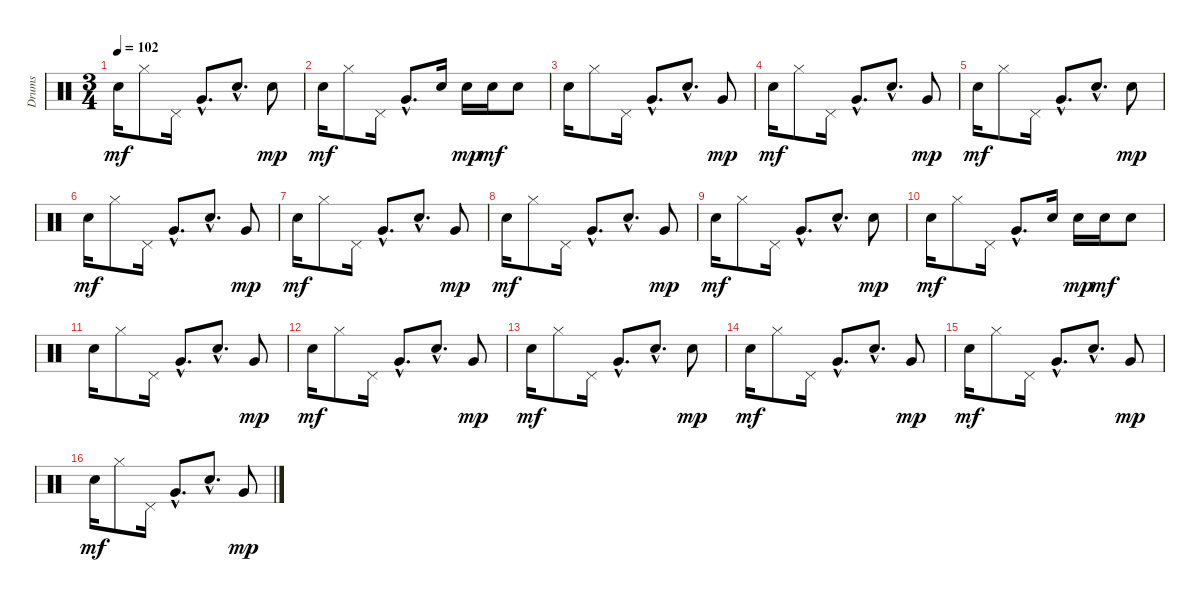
\track ("Drums" "Drums") {instrument percussion}
\staff {score}
\articulation defaults
\ts (3 4)
\tempo 102
\clef neutral
\ks c "Electric Snare (hit)".16{dy mf} "Hi-Hat (closed)".8 "Pedal Hi-Hat (hit)".16 "Very Low Tom (hit)"{hac}.8{d} "Electric Snare (hit)"{hac}.8{d} "Electric Snare (hit)".8{dy mp}
|
"Electric Snare (hit)".16{dy mf} "Hi-Hat (closed)".8 "Pedal Hi-Hat (hit)".16 "Very Low Tom (hit)"{hac}.8{d} "Electric Snare (hit)".16 "Electric Snare (hit)".16{dy mp} "Electric Snare (hit)".16{dy mf} "Electric Snare (hit)".8 |
"Electric Snare (hit)".16 "Hi-Hat (closed)".8 "Pedal Hi-Hat (hit)".16 "Very Low Tom (hit)"{hac}.8{d} "Electric Snare (hit)"{hac}.8{d} "Very Low Tom (hit)".8{dy mp} |
"Electric Snare (hit)".16{dy mf} "Hi-Hat (closed)".8 "Pedal Hi-Hat (hit)".16 "Very Low Tom (hit)"{hac}.8{d} "Electric Snare (hit)"{hac}.8{d} "Very Low Tom (hit)".8{dy mp} |
"Electric Snare (hit)".16{dy mf} "Hi-Hat (closed)".8 "Pedal Hi-Hat (hit)".16 "Very Low Tom (hit)"{hac}.8{d} "Electric Snare (hit)"{hac}.8{d} "Electric Snare (hit)".8{dy mp} |
"Electric Snare (hit)".16{dy mf} "Hi-Hat (closed)".8 "Pedal Hi-Hat (hit)".16 "Very Low Tom (hit)"{hac}.8{d} "Electric Snare (hit)"{hac}.8{d} "Very Low Tom (hit)".8{dy mp} |
"Electric Snare (hit)".16{dy mf} "Hi-Hat (closed)".8 "Pedal Hi-Hat (hit)".16 "Very Low Tom (hit)"{hac}.8{d} "Electric Snare (hit)"{hac}.8{d} "Very Low Tom (hit)".8{dy mp} |
"Electric Snare (hit)".16{dy mf} "Hi-Hat (closed)".8 "Pedal Hi-Hat (hit)".16 "Very Low Tom (hit)"{hac}.8{d} "Electric Snare (hit)"{hac}.8{d} "Very Low Tom (hit)".8{dy mp} |
"Electric Snare (hit)".16{dy mf} "Hi-Hat (closed)".8 "Pedal Hi-Hat (hit)".16 "Very Low Tom (hit)"{hac}.8{d} "Electric Snare (hit)"{hac}.8{d} "Electric Snare (hit)".8{dy mp} |
"Electric Snare (hit)".16{dy mf} "Hi-Hat (closed)".8 "Pedal Hi-Hat (hit)".16 "Very Low Tom (hit)"{hac}.8{d} "Electric Snare (hit)".16 "Electric Snare (hit)".16{dy mp} "Electric Snare (hit)".16{dy mf} "Electric Snare (hit)".8 |
"Electric Snare (hit)".16 "Hi-Hat (closed)".8 "Pedal Hi-Hat (hit)".16 "Very Low Tom (hit)"{hac}.8{d} "Electric Snare (hit)"{hac}.8{d} "Very Low Tom (hit)".8{dy mp} |
"Electric Snare (hit)".16{dy mf} "Hi-Hat (closed)".8 "Pedal Hi-Hat (hit)".16 "Very Low Tom (hit)"{hac}.8{d} "Electric Snare (hit)"{hac}.8{d} "Very Low Tom (hit)".8{dy mp} |
"Electric Snare (hit)".16{dy mf} "Hi-Hat (closed)".8 "Pedal Hi-Hat (hit)".16 "Very Low Tom (hit)"{hac}.8{d} "Electric Snare (hit)"{hac}.8{d} "Electric Snare (hit)".8{dy mp} |
"Electric Snare (hit)".16{dy mf} "Hi-Hat (closed)".8 "Pedal Hi-Hat (hit)".16 "Very Low Tom (hit)"{hac}.8{d} "Electric Snare (hit)"{hac}.8{d} "Very Low Tom (hit)".8{dy mp} |
"Electric Snare (hit)".16{dy mf} "Hi-Hat (closed)".8 "Pedal Hi-Hat (hit)".16 "Very Low Tom (hit)"{hac}.8{d} "Electric Snare (hit)"{hac}.8{d} "Very Low Tom (hit)".8{dy mp} |
"Electric Snare (hit)".16{dy mf} "Hi-Hat (closed)".8 "Pedal Hi-Hat (hit)".16 "Very Low Tom (hit)"{hac}.8{d} "Electric Snare (hit)"{hac}.8{d} "Very Low Tom (hit)".8{dy mp}
